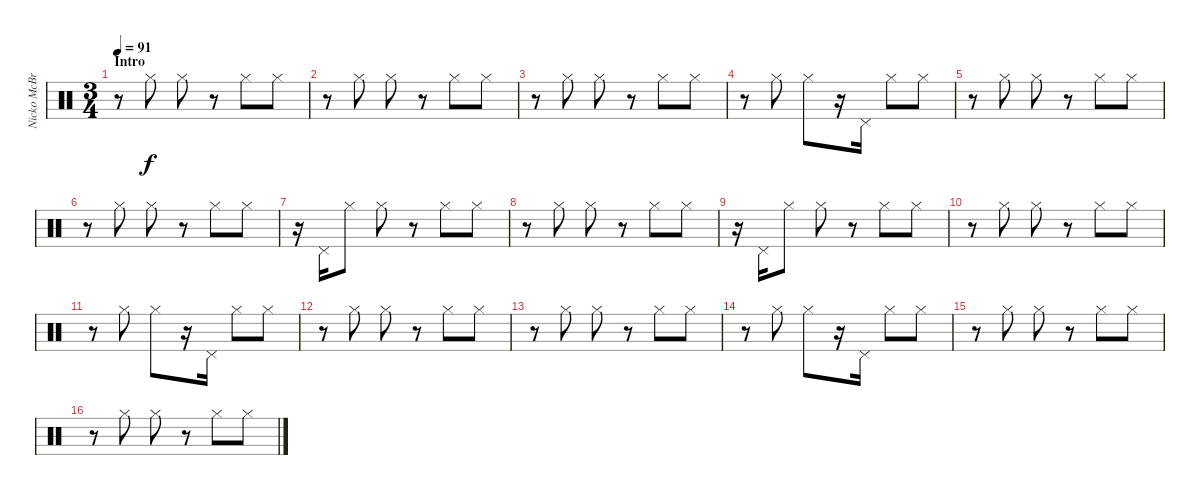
\track ("Nicko McBrain" "Nicko McBr") {instrument percussion}
\staff {score}
\articulation defaults
\ts (3 4)
\section ("" "Intro")
\tempo 91
\tempo 87
\tempo 91
\clef neutral
\ks c
r.8{dy f volume 11} "Hi-Hat (closed)".8 "Hi-Hat (closed)".8 r.8 "Hi-Hat (closed)".8 "Hi-Hat (closed)".8 |
r.8 "Hi-Hat (closed)".8 "Hi-Hat (closed)".8 r.8 "Hi-Hat (closed)".8 "Hi-Hat (closed)".8 |
r.8 "Hi-Hat (closed)".8 "Hi-Hat (closed)".8 r.8 "Hi-Hat (closed)".8 "Hi-Hat (closed)".8 |
r.8 "Hi-Hat (closed)".8 "Hi-Hat (closed)".8 r.16 "Pedal Hi-Hat (hit)".16 "Hi-Hat (closed)".8 "Hi-Hat (closed)".8 |
r.8 "Hi-Hat (closed)".8 "Hi-Hat (closed)".8 r.8 "Hi-Hat (closed)".8 "Hi-Hat (closed)".8 |
r.8 "Hi-Hat (closed)".8 "Hi-Hat (closed)".8 r.8 "Hi-Hat (closed)".8 "Hi-Hat (closed)".8 |
r.16 "Pedal Hi-Hat (hit)".16 "Hi-Hat (closed)".8 "Hi-Hat (closed)".8 r.8 "Hi-Hat (closed)".8 "Hi-Hat (closed)".8 |
r.8 "Hi-Hat (closed)".8 "Hi-Hat (closed)".8 r.8 "Hi-Hat (closed)".8 "Hi-Hat (closed)".8 |
r.16 "Pedal Hi-Hat (hit)".16 "Hi-Hat (closed)".8 "Hi-Hat (closed)".8 r.8 "Hi-Hat (closed)".8 "Hi-Hat (closed)".8 |
r.8 "Hi-Hat (closed)".8 "Hi-Hat (closed)".8 r.8 "Hi-Hat (closed)".8 "Hi-Hat (closed)".8 |
r.8 "Hi-Hat (closed)".8 "Hi-Hat (closed)".8 r.16 "Pedal Hi-Hat (hit)".16 "Hi-Hat (closed)".8 "Hi-Hat (closed)".8 |
r.8 "Hi-Hat (closed)".8 "Hi-Hat (closed)".8 r.8 "Hi-Hat (closed)".8 "Hi-Hat (closed)".8 |
r.8 "Hi-Hat (closed)".8 "Hi-Hat (closed)".8 r.8 "Hi-Hat (closed)".8 "Hi-Hat (closed)".8 |
r.8 "Hi-Hat (closed)".8 "Hi-Hat (closed)".8 r.16 "Pedal Hi-Hat (hit)".16 "Hi-Hat (closed)".8 "Hi-Hat (closed)".8 |
r.8 "Hi-Hat (closed)".8 "Hi-Hat (closed)".8 r.8 "Hi-Hat (closed)".8 "Hi-Hat (closed)".8 |
r.8 "Hi-Hat (closed)".8 "Hi-Hat (closed)".8 r.8 "Hi-Hat (closed)".8 "Hi-Hat (closed)".8
